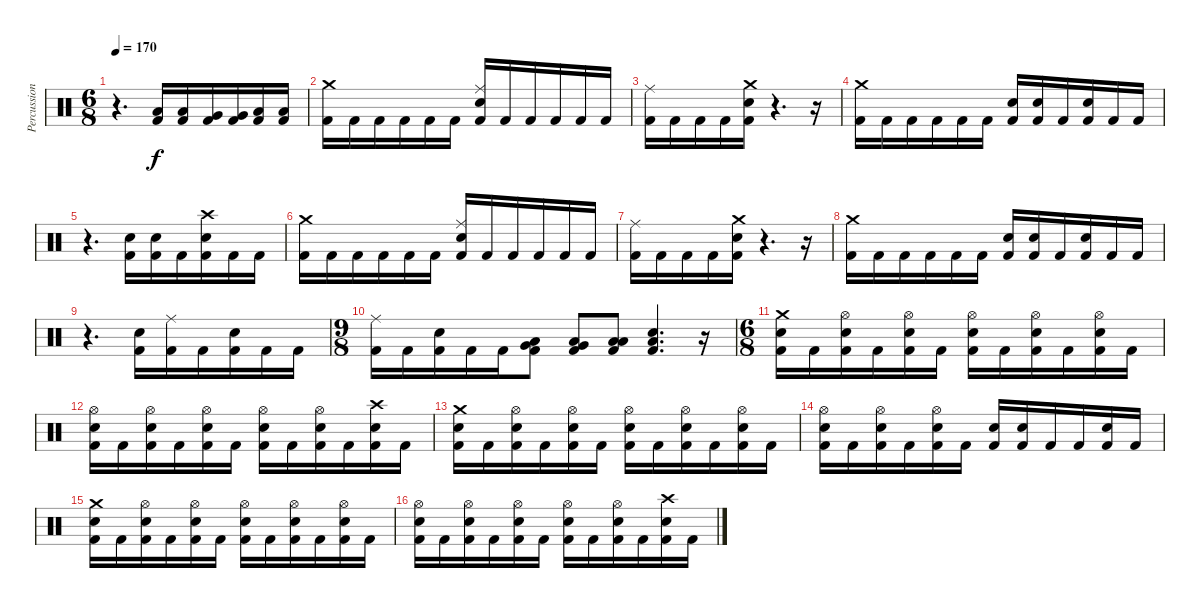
\track ("Percussions" "Percussion") {instrument percussion}
\staff {score}
\articulation defaults
\ts (6 8)
\tempo 170
\clef neutral
\ks c
r.4{d dy f} ("Low Tom (hit)" "Kick (hit) 2").16 ("Low Tom (hit)" "Kick (hit) 2").16 ("Very Low Tom (hit)" "Kick (hit) 2").16 ("Very Low Tom (hit)" "Kick (hit) 2").16 ("Low Floor Tom (hit)" "Kick (hit) 2").16 ("Low Floor Tom (hit)" "Kick (hit) 2").16 |
("Crash medium (hit)" "Kick (hit) 2").16 "Kick (hit) 2".16 "Kick (hit) 2".16 "Kick (hit) 2".16 "Kick (hit) 2".16 "Kick (hit) 2".16 ("Ride (middle)" "Electric Snare (hit)" "Kick (hit) 2").16 "Kick (hit) 2".16 "Kick (hit) 2".16 "Kick (hit) 2".16 "Kick (hit) 2".16 "Kick (hit) 2".16 |
("Ride (middle)" "Kick (hit) 2").16 "Kick (hit) 2".16 "Kick (hit) 2".16 "Kick (hit) 2".16 ("Crash medium (hit)" "Electric Snare (hit)" "Kick (hit) 2").16 r.4{d} r.16 |
("Crash medium (hit)" "Kick (hit) 2").16 "Kick (hit) 2".16 "Kick (hit) 2".16 "Kick (hit) 2".16 "Kick (hit) 2".16 "Kick (hit) 2".16 ("Electric Snare (hit)" "Kick (hit) 2").16 ("Electric Snare (hit)" "Kick (hit) 2").16 "Kick (hit) 2".16 ("Electric Snare (hit)" "Kick (hit) 2").16 "Kick (hit) 2".16 "Kick (hit) 2".16 |
r.4{d} ("Electric Snare (hit)" "Kick (hit) 2").16 ("Electric Snare (hit)" "Kick (hit) 2").16 "Kick (hit) 2".16 ("Crash high (hit)" "Electric Snare (hit)" "Kick (hit) 2").16 "Kick (hit) 2".16 "Kick (hit) 2".16 |
("Crash medium (hit)" "Kick (hit) 2").16 "Kick (hit) 2".16 "Kick (hit) 2".16 "Kick (hit) 2".16 "Kick (hit) 2".16 "Kick (hit) 2".16 ("Ride (middle)" "Electric Snare (hit)" "Kick (hit) 2").16 "Kick (hit) 2".16 "Kick (hit) 2".16 "Kick (hit) 2".16 "Kick (hit) 2".16 "Kick (hit) 2".16 |
("Ride (middle)" "Kick (hit) 2").16 "Kick (hit) 2".16 "Kick (hit) 2".16 "Kick (hit) 2".16 ("Crash medium (hit)" "Electric Snare (hit)" "Kick (hit) 2").16 r.4{d} r.16 |
("Crash medium (hit)" "Kick (hit) 2").16 "Kick (hit) 2".16 "Kick (hit) 2".16 "Kick (hit) 2".16 "Kick (hit) 2".16 "Kick (hit) 2".16 ("Electric Snare (hit)" "Kick (hit) 2").16 ("Electric Snare (hit)" "Kick (hit) 2").16 "Kick (hit) 2".16 ("Electric Snare (hit)" "Kick (hit) 2").16 "Kick (hit) 2".16 "Kick (hit) 2".16 |
r.4{d} ("Electric Snare (hit)" "Kick (hit) 2").16 ("Ride (middle)" "Kick (hit) 2").16 "Kick (hit) 2".16 ("Electric Snare (hit)" "Kick (hit) 2").16 "Kick (hit) 2".16 "Kick (hit) 2".16 |
\ts (9 8)
("Ride (middle)" "Kick (hit) 2").16 "Kick (hit) 2".16 ("Electric Snare (hit)" "Kick (hit) 2").16 "Kick (hit) 2".16 "Kick (hit) 2".16 ("Very Low Tom (hit)" "Low Floor Tom (hit)" "Kick (hit) 2").8 ("Very Low Tom (hit)" "Low Floor Tom (hit)" "Kick (hit) 2").8 ("Low Floor Tom (hit)" "Low Floor Tom (hit)" "Kick (hit) 2").8 ("Low Floor Tom (hit)" "Electric Snare (hit)" "Kick (hit) 2").4{d} r.16 |
\ts (6 8)
("Crash medium (hit)" "Electric Snare (hit)" "Kick (hit) 2").16 "Kick (hit) 2".16 ("Hi-Hat (open)" "Electric Snare (hit)" "Kick (hit) 2").16 "Kick (hit) 2".16 ("Hi-Hat (open)" "Electric Snare (hit)" "Kick (hit) 2").16 "Kick (hit) 2".16 ("Hi-Hat (open)" "Electric Snare (hit)" "Kick (hit) 2").16 "Kick (hit) 2".16 ("Hi-Hat (open)" "Electric Snare (hit)" "Kick (hit) 2").16 "Kick (hit) 2".16 ("Hi-Hat (open)" "Electric Snare (hit)" "Kick (hit) 2").16 "Kick (hit) 2".16 |
("Hi-Hat (open)" "Electric Snare (hit)" "Kick (hit) 2").16 "Kick (hit) 2".16 ("Hi-Hat (open)" "Electric Snare (hit)" "Kick (hit) 2").16 "Kick (hit) 2".16 ("Hi-Hat (open)" "Electric Snare (hit)" "Kick (hit) 2").16 "Kick (hit) 2".16 ("Hi-Hat (open)" "Electric Snare (hit)" "Kick (hit) 2").16 "Kick (hit) 2".16 ("Hi-Hat (open)" "Electric Snare (hit)" "Kick (hit) 2").16 "Kick (hit) 2".16 ("Crash high (hit)" "Electric Snare (hit)" "Kick (hit) 2").16 "Kick (hit) 2".16 |
("Crash medium (hit)" "Electric Snare (hit)" "Kick (hit) 2").16 "Kick (hit) 2".16 ("Hi-Hat (open)" "Electric Snare (hit)" "Kick (hit) 2").16 "Kick (hit) 2".16 ("Hi-Hat (open)" "Electric Snare (hit)" "Kick (hit) 2").16 "Kick (hit) 2".16 ("Hi-Hat (open)" "Electric Snare (hit)" "Kick (hit) 2").16 "Kick (hit) 2".16 ("Hi-Hat (open)" "Electric Snare (hit)" "Kick (hit) 2").16 "Kick (hit) 2".16 ("Hi-Hat (open)" "Electric Snare (hit)" "Kick (hit) 2").16 "Kick (hit) 2".16 |
("Hi-Hat (open)" "Electric Snare (hit)" "Kick (hit) 2").16 "Kick (hit) 2".16 ("Hi-Hat (open)" "Electric Snare (hit)" "Kick (hit) 2").16 "Kick (hit) 2".16 ("Hi-Hat (open)" "Electric Snare (hit)" "Kick (hit) 2").16 "Kick (hit) 2".16 ("Electric Snare (hit)" "Kick (hit) 2").16 ("Electric Snare (hit)" "Kick (hit) 2").16 "Kick (hit) 2".16 "Kick (hit) 2".16 ("Electric Snare (hit)" "Kick (hit) 2").16 "Kick (hit) 2".16 |
("Crash medium (hit)" "Electric Snare (hit)" "Kick (hit) 2").16 "Kick (hit) 2".16 ("Hi-Hat (open)" "Electric Snare (hit)" "Kick (hit) 2").16 "Kick (hit) 2".16 ("Hi-Hat (open)" "Electric Snare (hit)" "Kick (hit) 2").16 "Kick (hit) 2".16 ("Hi-Hat (open)" "Electric Snare (hit)" "Kick (hit) 2").16 "Kick (hit) 2".16 ("Hi-Hat (open)" "Electric Snare (hit)" "Kick (hit) 2").16 "Kick (hit) 2".16 ("Hi-Hat (open)" "Electric Snare (hit)" "Kick (hit) 2").16 "Kick (hit) 2".16 |
("Hi-Hat (open)" "Electric Snare (hit)" "Kick (hit) 2").16 "Kick (hit) 2".16 ("Hi-Hat (open)" "Electric Snare (hit)" "Kick (hit) 2").16 "Kick (hit) 2".16 ("Hi-Hat (open)" "Electric Snare (hit)" "Kick (hit) 2").16 "Kick (hit) 2".16 ("Hi-Hat (open)" "Electric Snare (hit)" "Kick (hit) 2").16 "Kick (hit) 2".16 ("Hi-Hat (open)" "Electric Snare (hit)" "Kick (hit) 2").16 "Kick (hit) 2".16 ("Crash high (hit)" "Electric Snare (hit)" "Kick (hit) 2").16 "Kick (hit) 2".16
